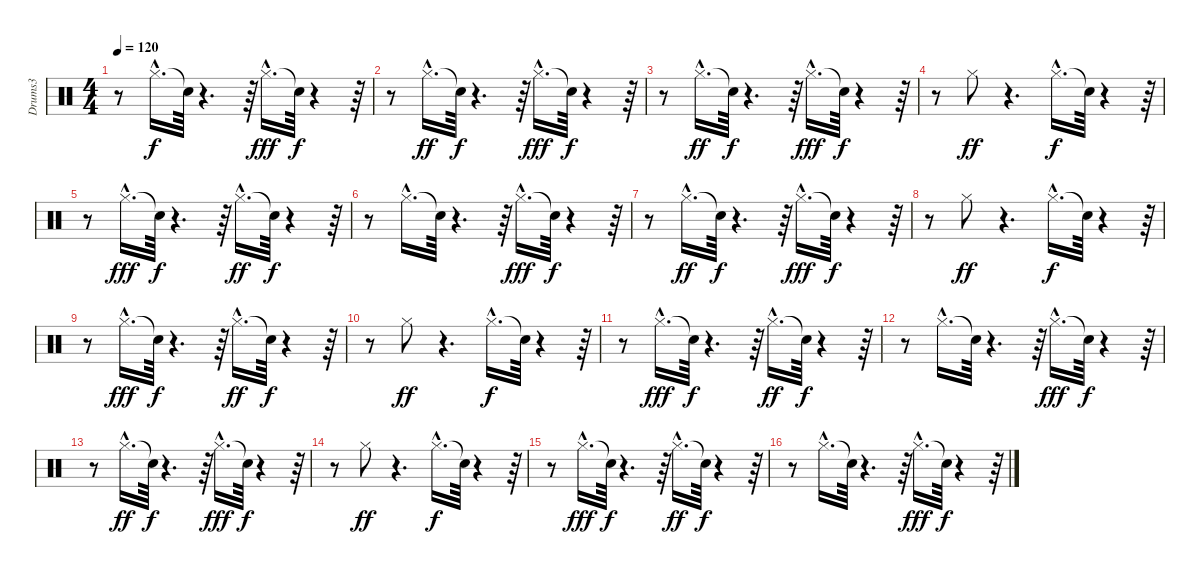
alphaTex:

\track ("Drums3" "Drums3") {instrument percussion}
\staff {score}
\articulation defaults
\ts (4 4)
\tempo 120
\clef neutral
\ks c
r.8{dy f} "Hi-Hat (closed)"{hac}.16{d} "Snare (hit)"{t}.64 r.4{d} r.64 "Hi-Hat (closed)"{hac}.16{d dy fff} "Snare (hit)"{t}.64{dy f} r.4 r.64 |
r.8 "Hi-Hat (closed)"{hac}.16{d dy ff} "Snare (hit)"{t}.64{dy f} r.4{d} r.64 "Hi-Hat (closed)"{hac}.16{d dy fff} "Snare (hit)"{t}.64{dy f} r.4 r.64 |
r.8 "Hi-Hat (closed)"{hac}.16{d dy ff} "Snare (hit)"{t}.64{dy f} r.4{d} r.64 "Hi-Hat (closed)"{hac}.16{d dy fff} "Snare (hit)"{t}.64{dy f} r.4 r.64 |
r.8 "Hi-Hat (closed)".8{dy ff} r.4{d} "Hi-Hat (closed)"{hac}.16{d dy f} "Snare (hit)"{t}.64 r.4 r.64 |
r.8 "Hi-Hat (closed)"{hac}.16{d dy fff} "Snare (hit)"{t}.64{dy f} r.4{d} r.64 "Hi-Hat (closed)"{hac}.16{d dy ff} "Snare (hit)"{t}.64{dy f} r.4 r.64 |
r.8 "Hi-Hat (closed)"{hac}.16{d} "Snare (hit)"{t}.64 r.4{d} r.64 "Hi-Hat (closed)"{hac}.16{d dy fff} "Snare (hit)"{t}.64{dy f} r.4 r.64 |
r.8 "Hi-Hat (closed)"{hac}.16{d dy ff} "Snare (hit)"{t}.64{dy f} r.4{d} r.64 "Hi-Hat (closed)"{hac}.16{d dy fff} "Snare (hit)"{t}.64{dy f} r.4 r.64 |
r.8 "Hi-Hat (closed)".8{dy ff} r.4{d} "Hi-Hat (closed)"{hac}.16{d dy f} "Snare (hit)"{t}.64 r.4 r.64 |
r.8 "Hi-Hat (closed)"{hac}.16{d dy fff} "Snare (hit)"{t}.64{dy f} r.4{d} r.64 "Hi-Hat (closed)"{hac}.16{d dy ff} "Snare (hit)"{t}.64{dy f} r.4 r.64 |
r.8 "Hi-Hat (closed)".8{dy ff} r.4{d} "Hi-Hat (closed)"{hac}.16{d dy f} "Snare (hit)"{t}.64 r.4 r.64 |
r.8 "Hi-Hat (closed)"{hac}.16{d dy fff} "Snare (hit)"{t}.64{dy f} r.4{d} r.64 "Hi-Hat (closed)"{hac}.16{d dy ff} "Snare (hit)"{t}.64{dy f} r.4 r.64 |
r.8 "Hi-Hat (closed)"{hac}.16{d} "Snare (hit)"{t}.64 r.4{d} r.64 "Hi-Hat (closed)"{hac}.16{d dy fff} "Snare (hit)"{t}.64{dy f} r.4 r.64 |
r.8 "Hi-Hat (closed)"{hac}.16{d dy ff} "Snare (hit)"{t}.64{dy f} r.4{d} r.64 "Hi-Hat (closed)"{hac}.16{d dy fff} "Snare (hit)"{t}.64{dy f} r.4 r.64 |
r.8 "Hi-Hat (closed)".8{dy ff} r.4{d} "Hi-Hat (closed)"{hac}.16{d dy f} "Snare (hit)"{t}.64 r.4 r.64 |
r.8 "Hi-Hat (closed)"{hac}.16{d dy fff} "Snare (hit)"{t}.64{dy f} r.4{d} r.64 "Hi-Hat (closed)"{hac}.16{d dy ff} "Snare (hit)"{t}.64{dy f} r.4 r.64 |
r.8 "Hi-Hat (closed)"{hac}.16{d} "Snare (hit)"{t}.64 r.4{d} r.64 "Hi-Hat (closed)"{hac}.16{d dy fff} "Snare (hit)"{t}.64{dy f} r.4 r.64
